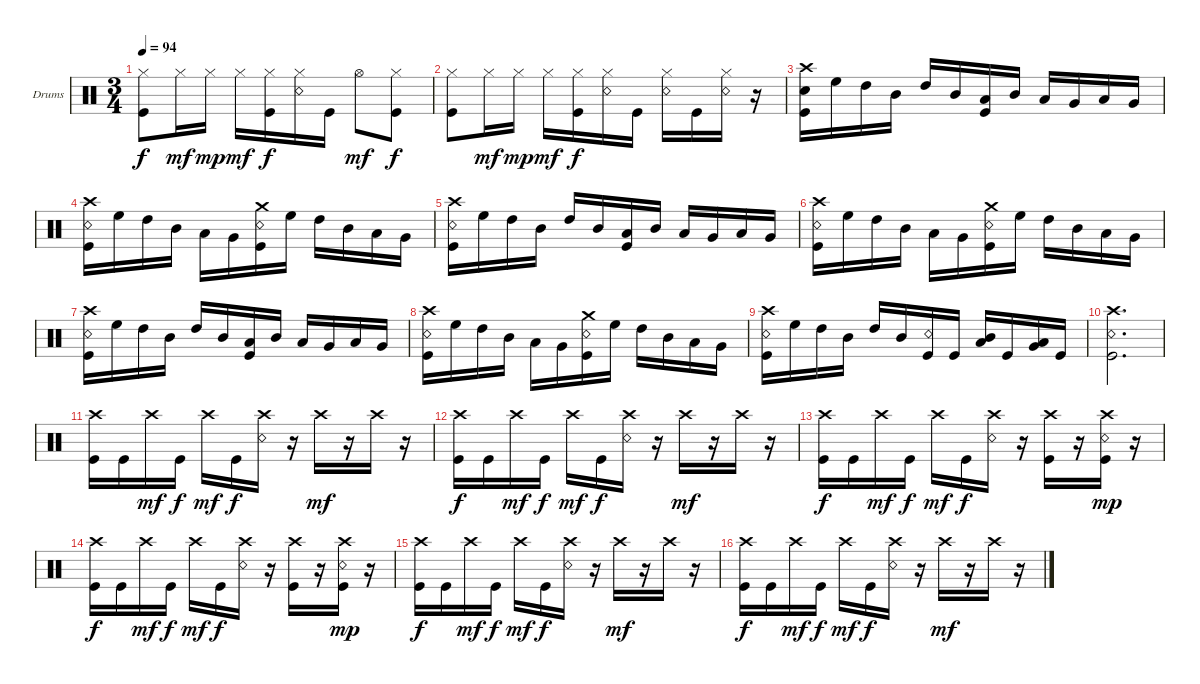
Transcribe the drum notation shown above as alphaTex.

\bracketExtendMode groupsimilarinstruments
\firstSystemTrackNameOrientation horizontal
\otherSystemsTrackNameOrientation horizontal
\track ("Drumkit" "Drums") {instrument percussion}
\staff {score}
\articulation defaults
\ts (3 4)
\tempo 94
\clef neutral
\ks c
("Kick (hit)" "Hi-Hat (closed)").8{dy f} "Hi-Hat (closed)".16{dy mf} "Hi-Hat (closed)".16{dy mp} "Hi-Hat (closed)".16{dy mf} ("Kick (hit)" "Hi-Hat (closed)").16{dy f} ("Snare (rim shot)" "Hi-Hat (closed)").16 "Kick (hit)".16 "Hi-Hat (open)".8{dy mf} ("Kick (hit)" "Hi-Hat (closed)").8{dy f} |
("Kick (hit)" "Hi-Hat (closed)").8 "Hi-Hat (closed)".16{dy mf} "Hi-Hat (closed)".16{dy mp} "Hi-Hat (closed)".16{dy mf} ("Kick (hit)" "Hi-Hat (closed)").16{dy f} ("Snare (rim shot)" "Hi-Hat (closed)").16 "Kick (hit)".16 ("Snare (rim shot)" "Hi-Hat (closed)").16 "Kick (hit)".16 ("Snare (rim shot)" "Hi-Hat (closed)").16 r.16 |
("Kick (hit)" "Snare (hit) 2" "Crash high (hit)").16 "High Floor Tom (hit)".16 "High Tom (hit)".16 "Mid Tom (hit)".16 "High Tom (hit)".16 "Mid Tom (hit)".16 ("Kick (hit)" "Low Tom (hit)").16 "Mid Tom (hit)".16 "Low Tom (hit)".16 "Very Low Tom (hit)".16 "Low Tom (hit)".16 "Very Low Tom (hit)".16 |
("Kick (hit)" "Snare (rim shot)" "Crash high (hit)").16 "High Floor Tom (hit)".16 "High Tom (hit)".16 "Mid Tom (hit)".16 "Low Tom (hit)".16 "Very Low Tom (hit)".16 ("Kick (hit)" "Snare (rim shot)" "Crash medium (hit)").16 "High Floor Tom (hit)".16 "High Tom (hit)".16 "Mid Tom (hit)".16 "Low Tom (hit)".16 "Very Low Tom (hit)".16 |
("Kick (hit)" "Snare (rim shot)" "Crash high (hit)").16 "High Floor Tom (hit)".16 "High Tom (hit)".16 "Mid Tom (hit)".16 "High Tom (hit)".16 "Mid Tom (hit)".16 ("Kick (hit)" "Low Tom (hit)").16 "Mid Tom (hit)".16 "Low Tom (hit)".16 "Very Low Tom (hit)".16 "Low Tom (hit)".16 "Very Low Tom (hit)".16 |
("Kick (hit)" "Snare (rim shot)" "Crash high (hit)").16 "High Floor Tom (hit)".16 "High Tom (hit)".16 "Mid Tom (hit)".16 "Low Tom (hit)".16 "Very Low Tom (hit)".16 ("Kick (hit)" "Snare (rim shot)" "Crash medium (hit)").16 "High Floor Tom (hit)".16 "High Tom (hit)".16 "Mid Tom (hit)".16 "Low Tom (hit)".16 "Very Low Tom (hit)".16 |
("Kick (hit)" "Snare (rim shot)" "Crash high (hit)").16 "High Floor Tom (hit)".16 "High Tom (hit)".16 "Mid Tom (hit)".16 "High Tom (hit)".16 "Mid Tom (hit)".16 ("Kick (hit)" "Low Tom (hit)").16 "Mid Tom (hit)".16 "Low Tom (hit)".16 "Very Low Tom (hit)".16 "Low Tom (hit)".16 "Very Low Tom (hit)".16 |
("Kick (hit)" "Snare (rim shot)" "Crash high (hit)").16 "High Floor Tom (hit)".16 "High Tom (hit)".16 "Mid Tom (hit)".16 "Low Tom (hit)".16 "Very Low Tom (hit)".16 ("Kick (hit)" "Snare (rim shot)" "Crash medium (hit)").16 "High Floor Tom (hit)".16 "High Tom (hit)".16 "Mid Tom (hit)".16 "Low Tom (hit)".16 "Very Low Tom (hit)".16 |
("Kick (hit)" "Snare (rim shot)" "Crash high (hit)").16 "High Floor Tom (hit)".16 "High Tom (hit)".16 "Mid Tom (hit)".16 "High Tom (hit)".16 "Mid Tom (hit)".16 ("Kick (hit)" "Snare (rim shot)").16 "Kick (hit)".16 ("Mid Tom (hit)" "Low Tom (hit)").16 "Kick (hit)".16 ("Low Tom (hit)" "Very Low Tom (hit)").16 "Kick (hit)".16 |
("Kick (hit)" "Snare (rim shot)" "Crash high (hit)").2{d} |
("Kick (hit)" "Crash high (hit)").16 "Kick (hit)".16 "Crash high (hit)".16{dy mf} "Kick (hit)".16{dy f} "Crash high (hit)".16{dy mf} "Kick (hit)".16{dy f} ("Snare (rim shot)" "Crash high (hit)").16 r.16 "Crash high (hit)".16{dy mf} r.16 "Crash high (hit)".16 r.16 |
("Kick (hit)" "Crash high (hit)").16{dy f} "Kick (hit)".16 "Crash high (hit)".16{dy mf} "Kick (hit)".16{dy f} "Crash high (hit)".16{dy mf} "Kick (hit)".16{dy f} ("Snare (rim shot)" "Crash high (hit)").16 r.16 "Crash high (hit)".16{dy mf} r.16 "Crash high (hit)".16 r.16 |
("Kick (hit)" "Crash high (hit)").16{dy f} "Kick (hit)".16 "Crash high (hit)".16{dy mf} "Kick (hit)".16{dy f} "Crash high (hit)".16{dy mf} "Kick (hit)".16{dy f} ("Snare (rim shot)" "Crash high (hit)").16 r.16 ("Kick (hit)" "Crash high (hit)").16 r.16 ("Kick (hit)" "Snare (rim shot)" "Crash high (hit)").16{dy mp} r.16 |
("Kick (hit)" "Crash high (hit)").16{dy f} "Kick (hit)".16 "Crash high (hit)".16{dy mf} "Kick (hit)".16{dy f} "Crash high (hit)".16{dy mf} "Kick (hit)".16{dy f} ("Snare (rim shot)" "Crash high (hit)").16 r.16 ("Kick (hit)" "Crash high (hit)").16 r.16 ("Kick (hit)" "Snare (rim shot)" "Crash high (hit)").16{dy mp} r.16 |
("Kick (hit)" "Crash high (hit)").16{dy f} "Kick (hit)".16 "Crash high (hit)".16{dy mf} "Kick (hit)".16{dy f} "Crash high (hit)".16{dy mf} "Kick (hit)".16{dy f} ("Snare (rim shot)" "Crash high (hit)").16 r.16 "Crash high (hit)".16{dy mf} r.16 "Crash high (hit)".16 r.16 |
("Kick (hit)" "Crash high (hit)").16{dy f} "Kick (hit)".16 "Crash high (hit)".16{dy mf} "Kick (hit)".16{dy f} "Crash high (hit)".16{dy mf} "Kick (hit)".16{dy f} ("Snare (rim shot)" "Crash high (hit)").16 r.16 "Crash high (hit)".16{dy mf} r.16 "Crash high (hit)".16 r.16
